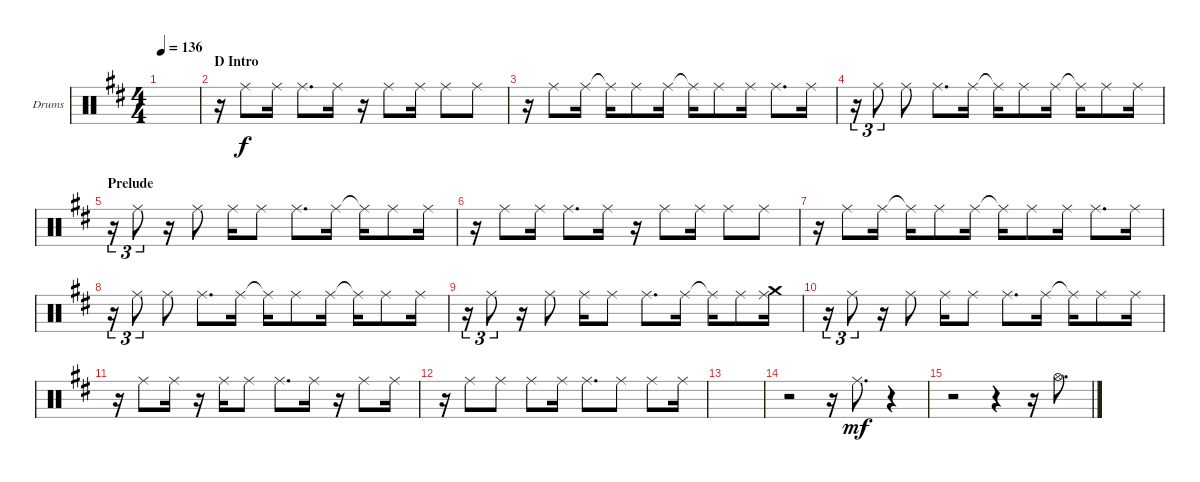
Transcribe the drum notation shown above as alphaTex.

\bracketExtendMode groupsimilarinstruments
\firstSystemTrackNameOrientation horizontal
\otherSystemsTrackNameOrientation horizontal
\track ("OH" "Drums") {instrument percussion}
\staff {score}
\articulation defaults
\ts (4 4)
\tempo 136
\clef neutral
\ks d
|
\section ("" "D Intro")
r.16 "Ride (middle)".8 "Ride (middle)".16 "Ride (middle)".8{d} "Ride (middle)".16 r.16 "Ride (middle)".8 "Ride (middle)".16 "Ride (middle)".8 "Ride (middle)".8 |
r.16 "Ride (middle)".8 "Ride (middle)".16 "Ride (middle)"{t}.16 "Ride (middle)".8 "Ride (middle)".16 "Ride (middle)"{t}.16 "Ride (middle)".8 "Ride (middle)".16 "Ride (middle)".8{d} "Ride (middle)".16 |
r.16{tu (3 2)} "Ride (middle)".8{tu (3 2)} "Ride (middle)".8 "Ride (middle)".8{d} "Ride (middle)".16 "Ride (middle)"{t}.16 "Ride (middle)".8 "Ride (middle)".16 "Ride (middle)"{t}.16 "Ride (middle)".8 "Ride (middle)".16 |
\section ("" "Prelude")
r.16{tu (3 2)} "Ride (middle)".8{tu (3 2)} r.16 "Ride (middle)".8 "Ride (middle)".16 "Ride (middle)".8 "Ride (middle)".8{d} "Ride (middle)".16 "Ride (middle)"{t}.16 "Ride (middle)".8 "Ride (middle)".16 |
r.16 "Ride (middle)".8 "Ride (middle)".16 "Ride (middle)".8{d} "Ride (middle)".16 r.16 "Ride (middle)".8 "Ride (middle)".16 "Ride (middle)".8 "Ride (middle)".8 |
r.16 "Ride (middle)".8 "Ride (middle)".16 "Ride (middle)"{t}.16 "Ride (middle)".8 "Ride (middle)".16 "Ride (middle)"{t}.16 "Ride (middle)".8 "Ride (middle)".16 "Ride (middle)".8{d} "Ride (middle)".16 |
r.16{tu (3 2)} "Ride (middle)".8{tu (3 2)} "Ride (middle)".8 "Ride (middle)".8{d} "Ride (middle)".16 "Ride (middle)"{t}.16 "Ride (middle)".8 "Ride (middle)".16 "Ride (middle)"{t}.16 "Ride (middle)".8 "Ride (middle)".16 |
r.16{tu (3 2)} "Ride (middle)".8{tu (3 2)} r.16 "Ride (middle)".8 "Ride (middle)".16 "Ride (middle)".8 "Ride (middle)".8{d} "Ride (middle)".16 "Ride (middle)"{t}.16 "Ride (middle)".8 ("Ride (middle)" "Crash medium (hit)").16 |
r.16{tu (3 2)} "Ride (middle)".8{tu (3 2)} r.16 "Ride (middle)".8 "Ride (middle)".16 "Ride (middle)".8 "Ride (middle)".8{d} "Ride (middle)".16 "Ride (middle)"{t}.16 "Ride (middle)".8 "Ride (middle)".16 |
r.16 "Ride (middle)".8 "Ride (middle)".16 r.16 "Ride (middle)".16 "Ride (middle)".8 "Ride (middle)".8{d} "Ride (middle)".16 r.16 "Ride (middle)".8 "Ride (middle)".16 |
r.16 "Ride (middle)".8 "Ride (middle)".8 "Ride (middle)".8 "Ride (middle)".16 "Ride (middle)".8{d} "Ride (middle)".8 "Ride (middle)".8 "Ride (middle)".16 |
|
r.2 r.16 "Ride (middle)".8{d dy mf} r.4 |
r.2 r.4 r.16 "Hi-Hat (open)".8{d}
